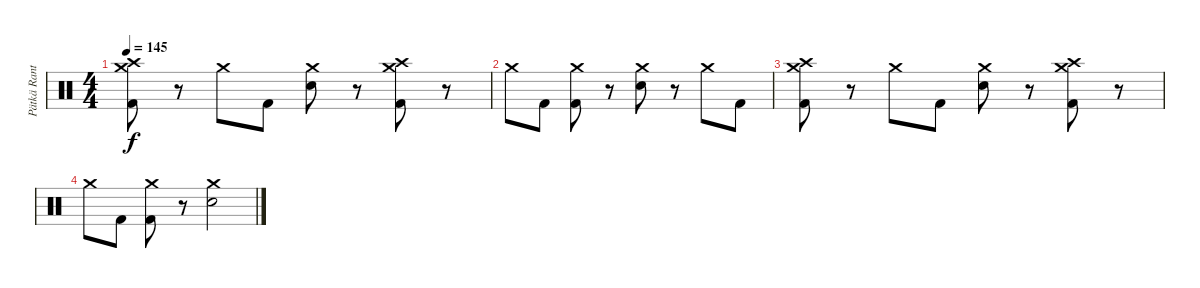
\track ("Pätkä Rantala (Drums)" "Pätkä Rant") {instrument percussion}
\staff {score}
\articulation defaults
\ts (4 4)
\tempo 145
\clef neutral
\ks c
("Crash high (hit)" "Crash medium (hit)" "Kick (hit) 2").8{dy f} r.8 "Crash medium (hit)".8 "Kick (hit) 2".8 ("Crash medium (hit)" "Snare (hit) 2").8 r.8 ("Crash high (hit)" "Crash medium (hit)" "Kick (hit) 2").8 r.8 |
"Crash medium (hit)".8 "Kick (hit) 2".8 ("Crash medium (hit)" "Kick (hit) 2").8 r.8 ("Crash medium (hit)" "Snare (hit) 2").8 r.8 "Crash medium (hit)".8 "Kick (hit) 2".8 |
("Crash high (hit)" "Crash medium (hit)" "Kick (hit) 2").8 r.8 "Crash medium (hit)".8 "Kick (hit) 2".8 ("Crash medium (hit)" "Snare (hit) 2").8 r.8 ("Crash high (hit)" "Crash medium (hit)" "Kick (hit) 2").8 r.8 |
"Crash medium (hit)".8 "Kick (hit) 2".8 ("Crash medium (hit)" "Kick (hit) 2").8 r.8 ("Crash medium (hit)" "Snare (hit) 2").2
